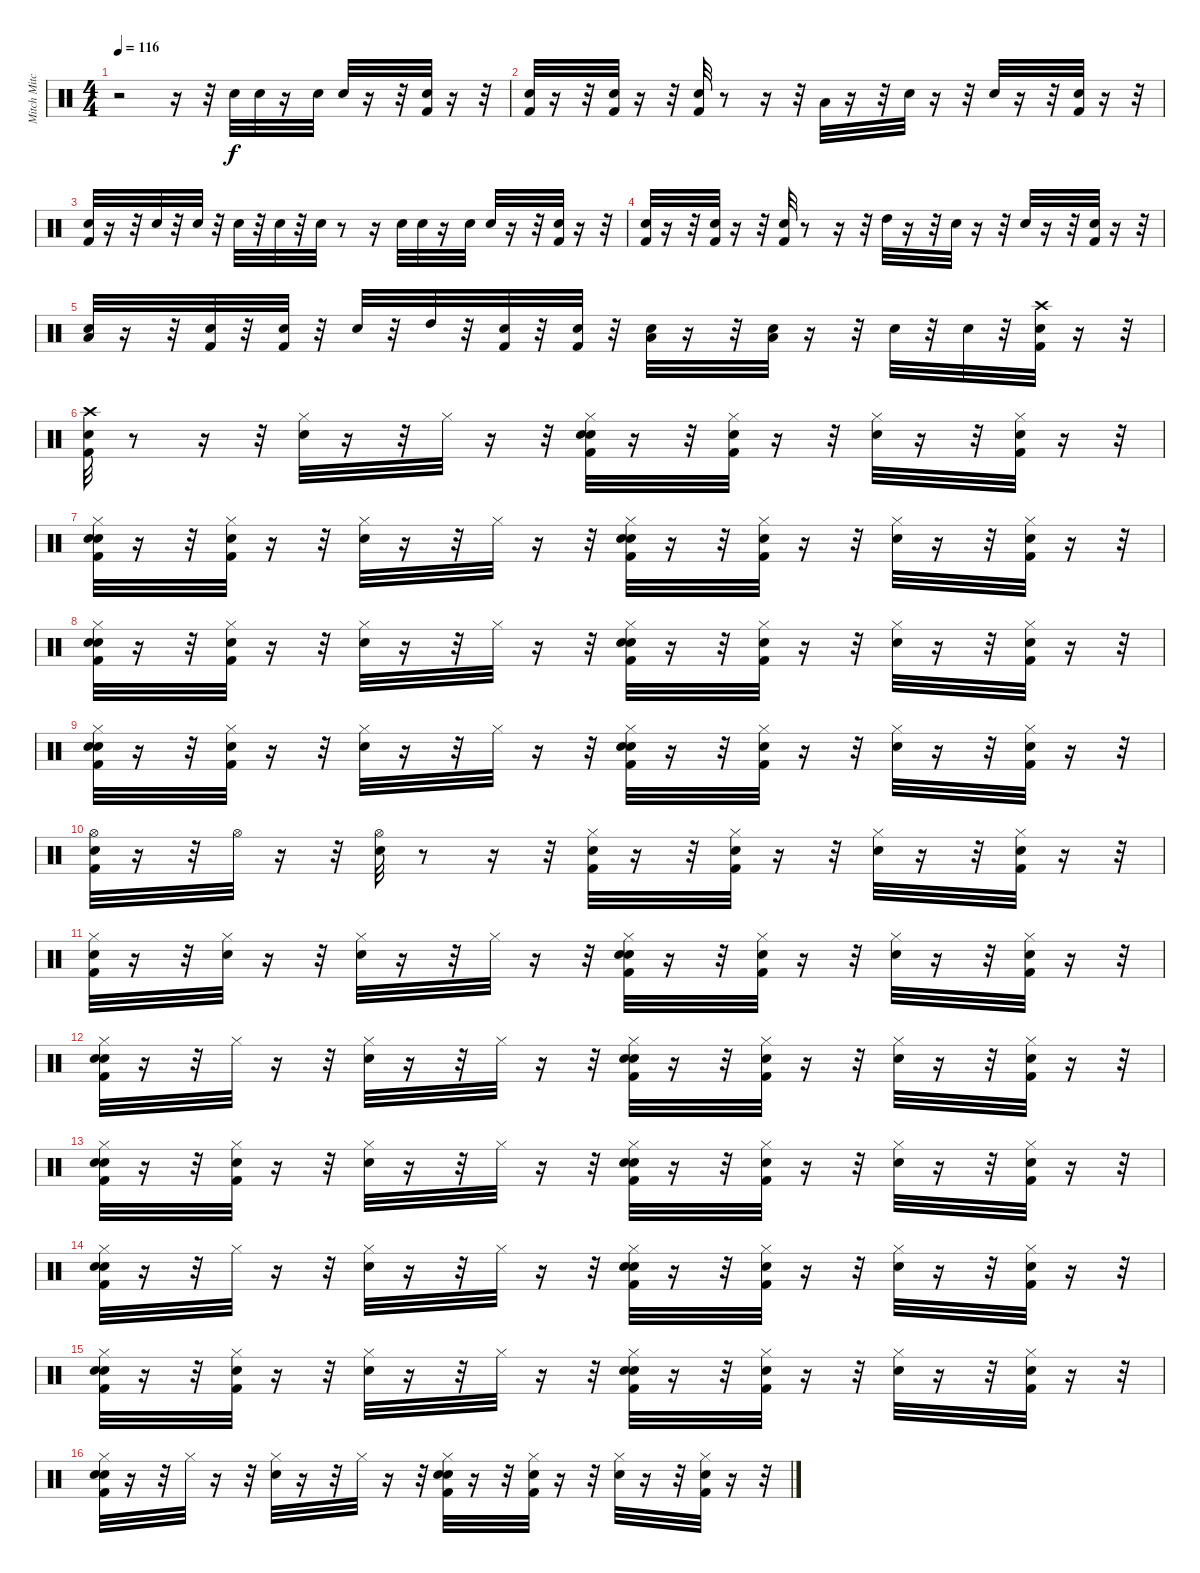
\track ("Mitch Mitchell" "Mitch Mitc") {instrument percussion}
\staff {score}
\articulation defaults
\ts (4 4)
\tempo 116
\clef neutral
\ks c
r.2{dy f} r.16 r.32 "Snare (hit) 2".32 "Snare (hit) 2".32 r.16 "Snare (hit) 2".32 "Snare (hit) 2".32 r.16 r.32 ("Kick (hit) 2" "Snare (hit)").32 r.16 r.32 |
("Kick (hit) 2" "Snare (hit)").32 r.16 r.32 ("Kick (hit) 2" "Snare (hit)").32 r.16 r.32 ("Kick (hit) 2" "Snare (hit)").32 r.8 r.16 r.32 "Low Tom (hit)".32 r.16 r.32 "Snare (hit) 2".32 r.16 r.32 "Snare (hit) 2".32 r.16 r.32 ("Kick (hit) 2" "Snare (hit)").32 r.16 r.32 |
("Kick (hit) 2" "Snare (hit)").32 r.16 r.32 "Snare (hit) 2".32 r.32 "Snare (hit) 2".32 r.32 "Snare (hit) 2".32 r.32 "Snare (hit) 2".32 r.32 "Snare (hit) 2".32 r.8 r.16 "Snare (hit) 2".32 "Snare (hit) 2".32 r.16 "Snare (hit) 2".32 "Snare (hit) 2".32 r.16 r.32 ("Kick (hit) 2" "Snare (hit)").32 r.16 r.32 |
("Kick (hit) 2" "Snare (hit)").32 r.16 r.32 ("Kick (hit) 2" "Snare (hit)").32 r.16 r.32 ("Kick (hit) 2" "Snare (hit)").32 r.8 r.16 r.32 "High Tom (hit)".32 r.16 r.32 "Snare (hit) 2".32 r.16 r.32 "Snare (hit) 2".32 r.16 r.32 ("Kick (hit) 2" "Snare (hit)").32 r.16 r.32 |
("Low Tom (hit)" "Snare (hit) 2").32 r.16 r.32 ("Kick (hit) 2" "Snare (hit)").32 r.32 ("Kick (hit) 2" "Snare (hit)").32 r.32 "Snare (hit) 2".32 r.32 "High Tom (hit)".32 r.32 ("Kick (hit) 2" "Snare (hit)").32 r.32 ("Kick (hit) 2" "Snare (hit)").32 r.32 ("Snare (hit) 2" "Low Floor Tom (hit)").32 r.16 r.32 ("Low Floor Tom (hit)" "Snare (hit) 2").32 r.16 r.32 "Snare (hit) 2".32 r.32 "Snare (hit) 2".32 r.32 ("Kick (hit) 2" "Crash high (hit)" "Snare (hit)").32 r.16 r.32 |
("Kick (hit) 2" "Snare (hit)" "Crash high (hit)").32 r.8 r.16 r.32 ("Hi-Hat (closed)" "Snare (hit) 2").32 r.16 r.32 "Hi-Hat (closed)".32 r.16 r.32 ("Kick (hit) 2" "Hi-Hat (closed)" "Snare (hit) 2" "Snare (hit)").32 r.16 r.32 ("Kick (hit) 2" "Hi-Hat (closed)" "Snare (hit)").32 r.16 r.32 ("Hi-Hat (closed)" "Snare (hit) 2").32 r.16 r.32 ("Kick (hit) 2" "Hi-Hat (closed)" "Snare (hit)").32 r.16 r.32 |
("Kick (hit) 2" "Hi-Hat (closed)" "Snare (hit) 2" "Snare (hit)").32 r.16 r.32 ("Kick (hit) 2" "Snare (hit)" "Hi-Hat (closed)").32 r.16 r.32 ("Snare (hit) 2" "Hi-Hat (closed)").32 r.16 r.32 "Hi-Hat (closed)".32 r.16 r.32 ("Kick (hit) 2" "Snare (hit) 2" "Snare (hit)" "Hi-Hat (closed)").32 r.16 r.32 ("Snare (hit)" "Hi-Hat (closed)" "Kick (hit) 2").32 r.16 r.32 ("Snare (hit) 2" "Hi-Hat (closed)").32 r.16 r.32 ("Kick (hit) 2" "Snare (hit)" "Hi-Hat (closed)").32 r.16 r.32 |
("Kick (hit) 2" "Hi-Hat (closed)" "Snare (hit) 2" "Snare (hit)").32 r.16 r.32 ("Kick (hit) 2" "Snare (hit)" "Hi-Hat (closed)").32 r.16 r.32 ("Snare (hit) 2" "Hi-Hat (closed)").32 r.16 r.32 "Hi-Hat (closed)".32 r.16 r.32 ("Kick (hit) 2" "Snare (hit) 2" "Snare (hit)" "Hi-Hat (closed)").32 r.16 r.32 ("Kick (hit) 2" "Snare (hit)" "Hi-Hat (closed)").32 r.16 r.32 ("Snare (hit) 2" "Hi-Hat (closed)").32 r.16 r.32 ("Kick (hit) 2" "Snare (hit)" "Hi-Hat (closed)").32 r.16 r.32 |
("Kick (hit) 2" "Hi-Hat (closed)" "Snare (hit) 2" "Snare (hit)").32 r.16 r.32 ("Kick (hit) 2" "Snare (hit)" "Hi-Hat (closed)").32 r.16 r.32 ("Snare (hit) 2" "Hi-Hat (closed)").32 r.16 r.32 "Hi-Hat (closed)".32 r.16 r.32 ("Kick (hit) 2" "Snare (hit) 2" "Snare (hit)" "Hi-Hat (closed)").32 r.16 r.32 ("Snare (hit)" "Hi-Hat (closed)" "Kick (hit) 2").32 r.16 r.32 ("Snare (hit) 2" "Hi-Hat (closed)").32 r.16 r.32 ("Kick (hit) 2" "Snare (hit)" "Hi-Hat (closed)").32 r.16 r.32 |
("Kick (hit) 2" "Snare (hit)" "Hi-Hat (open)").32 r.16 r.32 "Hi-Hat (open)".32 r.16 r.32 ("Snare (hit) 2" "Hi-Hat (open)").32 r.8 r.16 r.32 ("Kick (hit) 2" "Snare (hit)" "Hi-Hat (closed)").32 r.16 r.32 ("Kick (hit) 2" "Snare (hit)" "Hi-Hat (closed)").32 r.16 r.32 ("Snare (hit) 2" "Hi-Hat (closed)").32 r.16 r.32 ("Kick (hit) 2" "Snare (hit)" "Hi-Hat (closed)").32 r.16 r.32 |
("Kick (hit) 2" "Snare (hit)" "Hi-Hat (closed)").32 r.16 r.32 ("Snare (hit) 2" "Hi-Hat (closed)").32 r.16 r.32 ("Snare (hit) 2" "Hi-Hat (closed)").32 r.16 r.32 "Hi-Hat (closed)".32 r.16 r.32 ("Kick (hit) 2" "Snare (hit) 2" "Snare (hit)" "Hi-Hat (closed)").32 r.16 r.32 ("Kick (hit) 2" "Hi-Hat (closed)" "Snare (hit)").32 r.16 r.32 ("Snare (hit) 2" "Hi-Hat (closed)").32 r.16 r.32 ("Kick (hit) 2" "Snare (hit)" "Hi-Hat (closed)").32 r.16 r.32 |
("Kick (hit) 2" "Snare (hit) 2" "Snare (hit)" "Hi-Hat (closed)").32 r.16 r.32 "Hi-Hat (closed)".32 r.16 r.32 ("Snare (hit) 2" "Hi-Hat (closed)").32 r.16 r.32 "Hi-Hat (closed)".32 r.16 r.32 ("Kick (hit) 2" "Snare (hit) 2" "Snare (hit)" "Hi-Hat (closed)").32 r.16 r.32 ("Kick (hit) 2" "Snare (hit)" "Hi-Hat (closed)").32 r.16 r.32 ("Snare (hit) 2" "Hi-Hat (closed)").32 r.16 r.32 ("Kick (hit) 2" "Snare (hit)" "Hi-Hat (closed)").32 r.16 r.32 |
("Kick (hit) 2" "Snare (hit) 2" "Snare (hit)" "Hi-Hat (closed)").32 r.16 r.32 ("Kick (hit) 2" "Snare (hit)" "Hi-Hat (closed)").32 r.16 r.32 ("Snare (hit) 2" "Hi-Hat (closed)").32 r.16 r.32 "Hi-Hat (closed)".32 r.16 r.32 ("Kick (hit) 2" "Snare (hit) 2" "Snare (hit)" "Hi-Hat (closed)").32 r.16 r.32 ("Kick (hit) 2" "Snare (hit)" "Hi-Hat (closed)").32 r.16 r.32 ("Snare (hit) 2" "Hi-Hat (closed)").32 r.16 r.32 ("Kick (hit) 2" "Snare (hit)" "Hi-Hat (closed)").32 r.16 r.32 |
("Kick (hit) 2" "Snare (hit) 2" "Snare (hit)" "Hi-Hat (closed)").32 r.16 r.32 "Hi-Hat (closed)".32 r.16 r.32 ("Snare (hit) 2" "Hi-Hat (closed)").32 r.16 r.32 "Hi-Hat (closed)".32 r.16 r.32 ("Kick (hit) 2" "Snare (hit) 2" "Snare (hit)" "Hi-Hat (closed)").32 r.16 r.32 ("Kick (hit) 2" "Snare (hit)" "Hi-Hat (closed)").32 r.16 r.32 ("Snare (hit) 2" "Hi-Hat (closed)").32 r.16 r.32 ("Kick (hit) 2" "Snare (hit)" "Hi-Hat (closed)").32 r.16 r.32 |
("Kick (hit) 2" "Snare (hit) 2" "Snare (hit)" "Hi-Hat (closed)").32 r.16 r.32 ("Kick (hit) 2" "Snare (hit)" "Hi-Hat (closed)").32 r.16 r.32 ("Snare (hit) 2" "Hi-Hat (closed)").32 r.16 r.32 "Hi-Hat (closed)".32 r.16 r.32 ("Kick (hit) 2" "Snare (hit) 2" "Snare (hit)" "Hi-Hat (closed)").32 r.16 r.32 ("Kick (hit) 2" "Snare (hit)" "Hi-Hat (closed)").32 r.16 r.32 ("Snare (hit) 2" "Hi-Hat (closed)").32 r.16 r.32 ("Kick (hit) 2" "Snare (hit)" "Hi-Hat (closed)").32 r.16 r.32 |
("Kick (hit) 2" "Snare (hit) 2" "Snare (hit)" "Hi-Hat (closed)").32 r.16 r.32 "Hi-Hat (closed)".32 r.16 r.32 ("Snare (hit) 2" "Hi-Hat (closed)").32 r.16 r.32 "Hi-Hat (closed)".32 r.16 r.32 ("Kick (hit) 2" "Snare (hit)" "Snare (hit) 2" "Hi-Hat (closed)").32 r.16 r.32 ("Kick (hit) 2" "Snare (hit)" "Hi-Hat (closed)").32 r.16 r.32 ("Snare (hit) 2" "Hi-Hat (closed)").32 r.16 r.32 ("Snare (hit)" "Kick (hit) 2" "Hi-Hat (closed)").32 r.16 r.32
